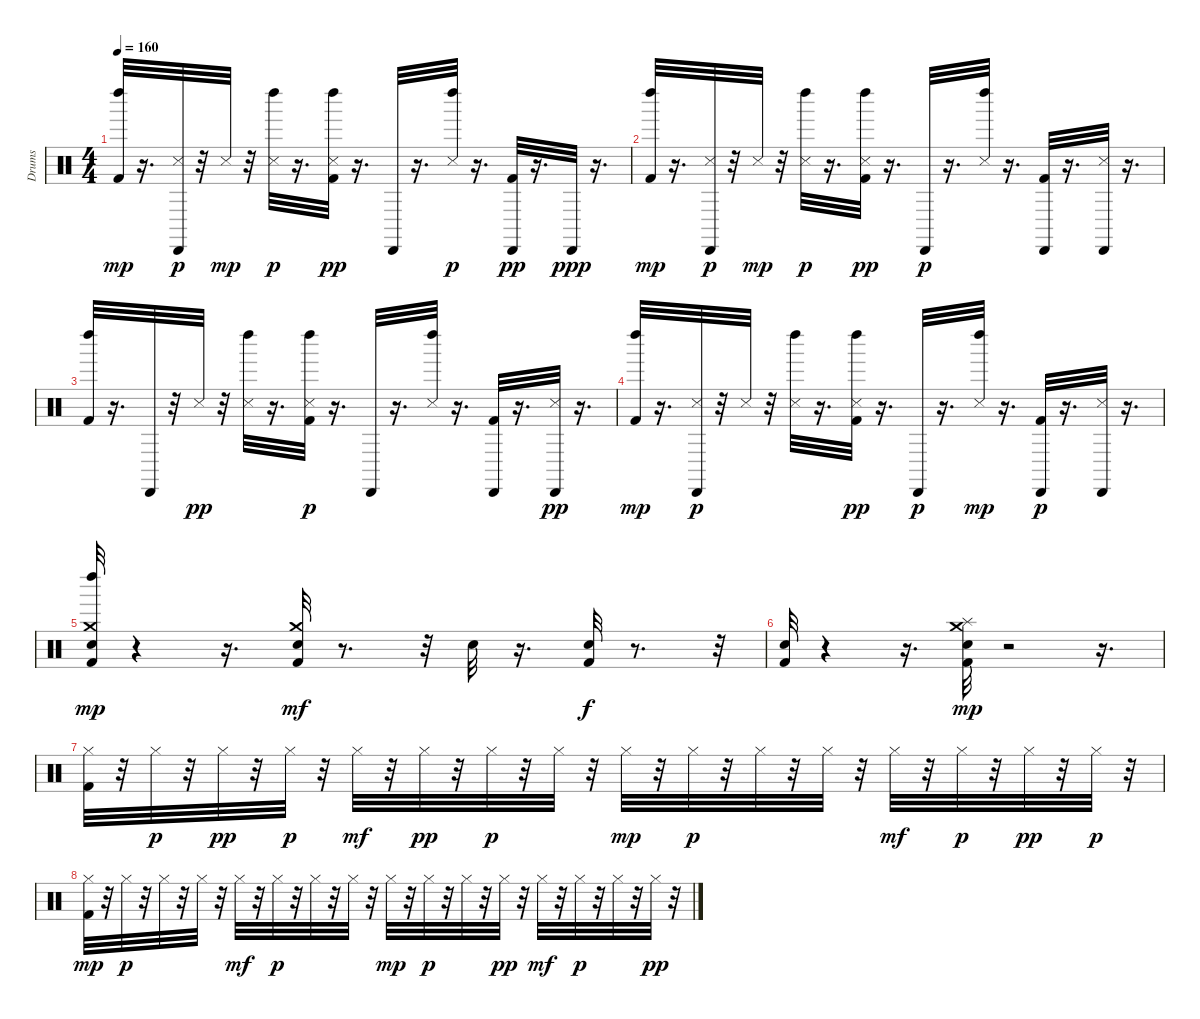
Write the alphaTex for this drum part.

\track ("Drums" "Drums") {instrument percussion}
\staff {score}
\articulation defaults
\ts (4 4)
\tempo 160
\clef neutral
\ks c
("Kick (hit) 2" "Left Maraca (hit)").32{dy mp} r.16{d} ("Snare (side stick) 3" "Cabasa (hit)").32{dy p} r.32 "Snare (side stick) 3".32{dy mp} r.32 ("Snare (side stick) 3" "Left Maraca (hit)").32{dy p} r.16{d} ("Snare (side stick) 3" "Kick (hit) 2" "Left Maraca (hit)").32{dy pp} r.16{d} "Cabasa (hit)".32 r.16{d} ("Snare (side stick) 3" "Left Maraca (hit)").32{dy p} r.16{d} ("Kick (hit) 2" "Cabasa (hit)").32{dy pp} r.16{d} "Cabasa (hit)".32{dy ppp} r.16{d} |
("Kick (hit) 2" "Left Maraca (hit)").32{dy mp} r.16{d} ("Snare (side stick) 3" "Cabasa (hit)").32{dy p} r.32 "Snare (side stick) 3".32{dy mp} r.32 ("Snare (side stick) 3" "Left Maraca (hit)").32{dy p} r.16{d} ("Kick (hit) 2" "Snare (side stick) 3" "Left Maraca (hit)").32{dy pp} r.16{d} "Cabasa (hit)".32{dy p} r.16{d} ("Snare (side stick) 3" "Left Maraca (hit)").32 r.16{d} ("Kick (hit) 2" "Cabasa (hit)").32 r.16{d} ("Cabasa (hit)" "Snare (side stick) 3").32 r.16{d} |
("Kick (hit) 2" "Left Maraca (hit)").32 r.16{d} "Cabasa (hit)".32 r.32 "Snare (side stick) 3".32{dy pp} r.32 ("Snare (side stick) 3" "Left Maraca (hit)").32 r.16{d} ("Kick (hit) 2" "Left Maraca (hit)" "Snare (side stick) 3").32{dy p} r.16{d} "Cabasa (hit)".32 r.16{d} ("Snare (side stick) 3" "Left Maraca (hit)").32 r.16{d} ("Kick (hit) 2" "Cabasa (hit)").32 r.16{d} ("Snare (side stick) 3" "Cabasa (hit)").32{dy pp} r.16{d} |
("Kick (hit) 2" "Left Maraca (hit)").32{dy mp} r.16{d} ("Snare (side stick) 3" "Cabasa (hit)").32{dy p} r.32 "Snare (side stick) 3".32 r.32 ("Snare (side stick) 3" "Left Maraca (hit)").32 r.16{d} ("Snare (side stick) 3" "Kick (hit) 2" "Left Maraca (hit)").32{dy pp} r.16{d} "Cabasa (hit)".32{dy p} r.16{d} ("Snare (side stick) 3" "Left Maraca (hit)").32{dy mp} r.16{d} ("Kick (hit) 2" "Cabasa (hit)").32{dy p} r.16{d} ("Snare (side stick) 3" "Cabasa (hit)").32 r.16{d} |
("Kick (hit) 2" "Crash medium (hit)" "Electric Snare (hit)" "Left Maraca (hit)").32{dy mp} r.4 r.16{d} ("Kick (hit) 2" "Crash medium (hit)" "Electric Snare (hit)").32{dy mf} r.8{d} r.32 "Electric Snare (hit)".32 r.16{d} ("Kick (hit) 2" "Electric Snare (hit)").32{dy f} r.8{d} r.32 |
("Kick (hit) 2" "Electric Snare (hit)").32 r.4 r.16{d} ("Kick (hit) 2" "Crash medium (hit)" "Splash (hit)" "Electric Snare (hit)").32{dy mp} r.2 r.16{d} |
("Kick (hit) 2" "Hi-Hat (closed)").32 r.32 "Hi-Hat (closed)".32{dy p} r.32 "Hi-Hat (closed)".32{dy pp} r.32 "Hi-Hat (closed)".32{dy p} r.32 "Hi-Hat (closed)".32{dy mf} r.32 "Hi-Hat (closed)".32{dy pp} r.32 "Hi-Hat (closed)".32{dy p} r.32 "Hi-Hat (closed)".32 r.32 "Hi-Hat (closed)".32{dy mp} r.32 "Hi-Hat (closed)".32{dy p} r.32 "Hi-Hat (closed)".32 r.32 "Hi-Hat (closed)".32 r.32 "Hi-Hat (closed)".32{dy mf} r.32 "Hi-Hat (closed)".32{dy p} r.32 "Hi-Hat (closed)".32{dy pp} r.32 "Hi-Hat (closed)".32{dy p} r.32 |
("Kick (hit) 2" "Hi-Hat (closed)").32{dy mp} r.32 "Hi-Hat (closed)".32{dy p} r.32 "Hi-Hat (closed)".32 r.32 "Hi-Hat (closed)".32 r.32 "Hi-Hat (closed)".32{dy mf} r.32 "Hi-Hat (closed)".32{dy p} r.32 "Hi-Hat (closed)".32 r.32 "Hi-Hat (closed)".32 r.32 "Hi-Hat (closed)".32{dy mp} r.32 "Hi-Hat (closed)".32{dy p} r.32 "Hi-Hat (closed)".32 r.32 "Hi-Hat (closed)".32{dy pp} r.32 "Hi-Hat (closed)".32{dy mf} r.32 "Hi-Hat (closed)".32{dy p} r.32 "Hi-Hat (closed)".32 r.32 "Hi-Hat (closed)".32{dy pp} r.32
